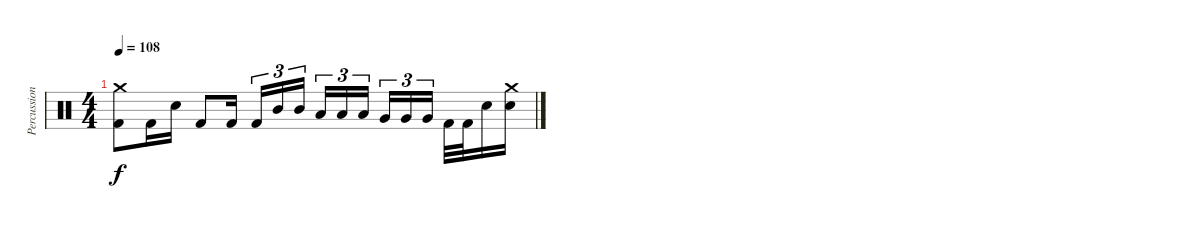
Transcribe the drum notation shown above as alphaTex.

\track ("Percussions" "Percussion") {instrument percussion}
\staff {score}
\articulation defaults
\ts (4 4)
\tempo 108
\clef neutral
\ks c
("Crash medium (hit)" "Kick (hit) 2").8{dy f} "Kick (hit) 2".16 "Electric Snare (hit)".16 "Kick (hit) 2".8 "Kick (hit) 2".16 "Kick (hit) 2".16{tu (3 2)} "Mid Tom (hit)".16{tu (3 2)} "Mid Tom (hit)".16{tu (3 2)} "Low Tom (hit)".16{tu (3 2)} "Low Tom (hit)".16{tu (3 2)} "Low Tom (hit)".16{tu (3 2)} "Very Low Tom (hit)".16{tu (3 2)} "Very Low Tom (hit)".16{tu (3 2)} "Very Low Tom (hit)".16{tu (3 2)} "Kick (hit) 2".32 "Kick (hit) 2".32 "Electric Snare (hit)".16 ("Crash medium (hit)" "Electric Snare (hit)").16
